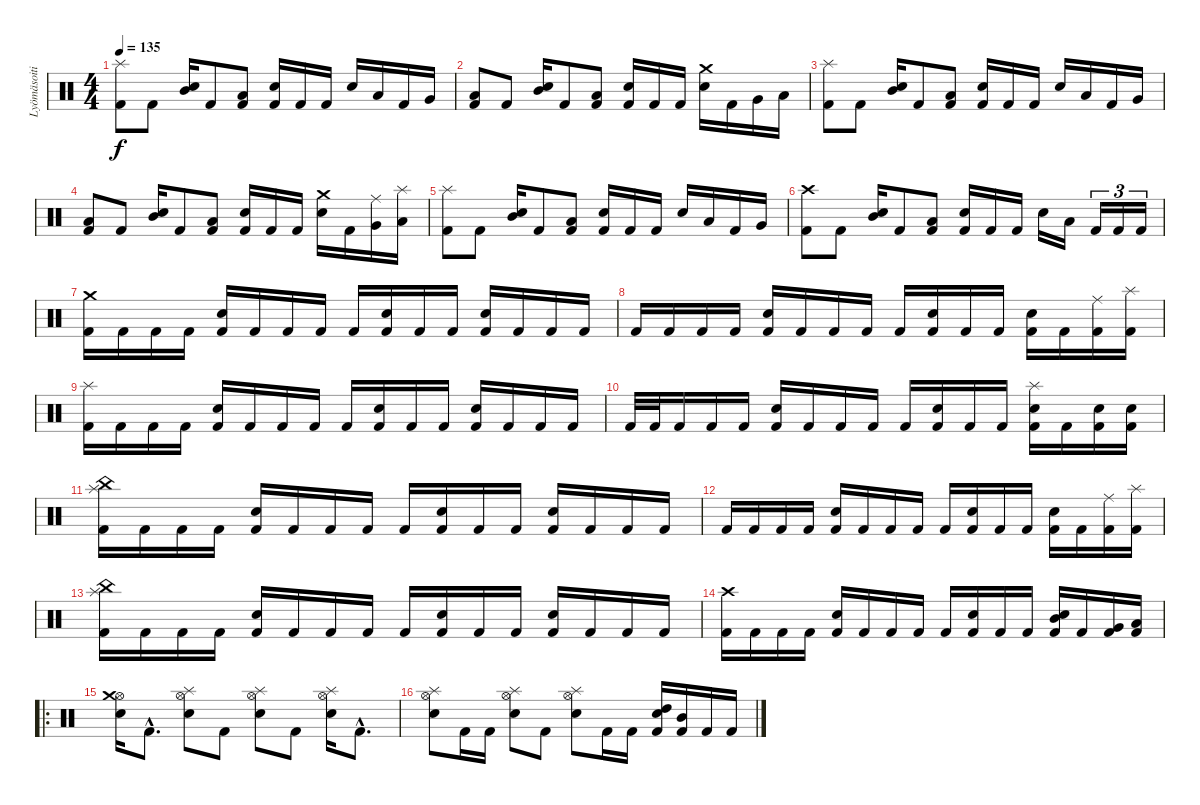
\track ("Lyömäsoitin" "Lyömäsoiti") {instrument percussion}
\staff {score}
\articulation defaults
\ts (4 4)
\tempo 135
\clef neutral
\ks c
("Splash (hit)" "Kick (hit) 2").8{dy f} "Kick (hit) 2".8 ("Mid Tom (hit)" "Electric Snare (hit)").16 "Kick (hit) 2".8 ("Low Tom (hit)" "Kick (hit) 2").8 ("Electric Snare (hit)" "Kick (hit) 2").16 "Kick (hit) 2".16 "Kick (hit) 2".16 "Electric Snare (hit)".16 "Low Tom (hit)".16 "Kick (hit) 2".16 "Very Low Tom (hit)".16 |
("Low Floor Tom (hit)" "Kick (hit) 2").8 "Kick (hit) 2".8 ("Mid Tom (hit)" "Electric Snare (hit)").16 "Kick (hit) 2".8 ("Low Tom (hit)" "Kick (hit) 2").8 ("Electric Snare (hit)" "Kick (hit) 2").16 "Kick (hit) 2".16 "Kick (hit) 2".16 ("Crash medium (hit)" "Electric Snare (hit)").16 "Kick (hit) 2".16 "Very Low Tom (hit)".16 "Low Floor Tom (hit)".16 |
("Splash (hit)" "Kick (hit) 2").8 "Kick (hit) 2".8 ("Mid Tom (hit)" "Electric Snare (hit)").16 "Kick (hit) 2".8 ("Low Tom (hit)" "Kick (hit) 2").8 ("Electric Snare (hit)" "Kick (hit) 2").16 "Kick (hit) 2".16 "Kick (hit) 2".16 "Electric Snare (hit)".16 "Low Tom (hit)".16 "Kick (hit) 2".16 "Very Low Tom (hit)".16 |
("Low Floor Tom (hit)" "Kick (hit) 2").8 "Kick (hit) 2".8 ("Mid Tom (hit)" "Electric Snare (hit)").16 "Kick (hit) 2".8 ("Low Tom (hit)" "Kick (hit) 2").8 ("Electric Snare (hit)" "Kick (hit) 2").16 "Kick (hit) 2".16 "Kick (hit) 2".16 ("Crash medium (hit)" "Electric Snare (hit)").16 "Kick (hit) 2".16 ("Ride (middle)" "Very Low Tom (hit)").16 ("Splash (hit)" "Low Floor Tom (hit)").16 |
("Splash (hit)" "Kick (hit) 2").8 "Kick (hit) 2".8 ("Mid Tom (hit)" "Electric Snare (hit)").16 "Kick (hit) 2".8 ("Low Tom (hit)" "Kick (hit) 2").8 ("Electric Snare (hit)" "Kick (hit) 2").16 "Kick (hit) 2".16 "Kick (hit) 2".16 "Electric Snare (hit)".16 "Low Tom (hit)".16 "Kick (hit) 2".16 "Very Low Tom (hit)".16 |
("Crash high (hit)" "Kick (hit) 2").8 "Kick (hit) 2".8 ("Mid Tom (hit)" "Electric Snare (hit)").16 "Kick (hit) 2".8 ("Low Tom (hit)" "Kick (hit) 2").8 ("Electric Snare (hit)" "Kick (hit) 2").16 "Kick (hit) 2".16 "Kick (hit) 2".16 "Electric Snare (hit)".16 "Low Tom (hit)".16 "Kick (hit) 2".16{tu (3 2)} "Kick (hit) 2".16{tu (3 2)} "Kick (hit) 2".16{tu (3 2)} |
("Crash medium (hit)" "Kick (hit) 2").16 "Kick (hit) 2".16 "Kick (hit) 2".16 "Kick (hit) 2".16 ("Electric Snare (hit)" "Kick (hit) 2").16 "Kick (hit) 2".16 "Kick (hit) 2".16 "Kick (hit) 2".16 "Kick (hit) 2".16 ("Electric Snare (hit)" "Kick (hit) 2").16 "Kick (hit) 2".16 "Kick (hit) 2".16 ("Electric Snare (hit)" "Kick (hit) 2").16 "Kick (hit) 2".16 "Kick (hit) 2".16 "Kick (hit) 2".16 |
"Kick (hit) 2".16 "Kick (hit) 2".16 "Kick (hit) 2".16 "Kick (hit) 2".16 ("Electric Snare (hit)" "Kick (hit) 2").16 "Kick (hit) 2".16 "Kick (hit) 2".16 "Kick (hit) 2".16 "Kick (hit) 2".16 ("Electric Snare (hit)" "Kick (hit) 2").16 "Kick (hit) 2".16 "Kick (hit) 2".16 ("Electric Snare (hit)" "Kick (hit) 2").16 "Kick (hit) 2".16 ("Ride (middle)" "Kick (hit) 2").16 ("Splash (hit)" "Kick (hit) 2").16 |
("Splash (hit)" "Kick (hit) 2").16 "Kick (hit) 2".16 "Kick (hit) 2".16 "Kick (hit) 2".16 ("Electric Snare (hit)" "Kick (hit) 2").16 "Kick (hit) 2".16 "Kick (hit) 2".16 "Kick (hit) 2".16 "Kick (hit) 2".16 ("Electric Snare (hit)" "Kick (hit) 2").16 "Kick (hit) 2".16 "Kick (hit) 2".16 ("Electric Snare (hit)" "Kick (hit) 2").16 "Kick (hit) 2".16 "Kick (hit) 2".16 "Kick (hit) 2".16 |
"Kick (hit) 2".32 "Kick (hit) 2".32 "Kick (hit) 2".16 "Kick (hit) 2".16 "Kick (hit) 2".16 ("Electric Snare (hit)" "Kick (hit) 2").16 "Kick (hit) 2".16 "Kick (hit) 2".16 "Kick (hit) 2".16 "Kick (hit) 2".16 ("Electric Snare (hit)" "Kick (hit) 2").16 "Kick (hit) 2".16 "Kick (hit) 2".16 ("Splash (hit)" "Electric Snare (hit)" "Kick (hit) 2").16 "Kick (hit) 2".16 ("Electric Snare (hit)" "Kick (hit) 2").16 ("Electric Snare (hit)" "Kick (hit) 2").16 |
("Splash (hit)" "China (hit)" "Kick (hit) 2").16 "Kick (hit) 2".16 "Kick (hit) 2".16 "Kick (hit) 2".16 ("Electric Snare (hit)" "Kick (hit) 2").16 "Kick (hit) 2".16 "Kick (hit) 2".16 "Kick (hit) 2".16 "Kick (hit) 2".16 ("Electric Snare (hit)" "Kick (hit) 2").16 "Kick (hit) 2".16 "Kick (hit) 2".16 ("Electric Snare (hit)" "Kick (hit) 2").16 "Kick (hit) 2".16 "Kick (hit) 2".16 "Kick (hit) 2".16 |
"Kick (hit) 2".16 "Kick (hit) 2".16 "Kick (hit) 2".16 "Kick (hit) 2".16 ("Electric Snare (hit)" "Kick (hit) 2").16 "Kick (hit) 2".16 "Kick (hit) 2".16 "Kick (hit) 2".16 "Kick (hit) 2".16 ("Electric Snare (hit)" "Kick (hit) 2").16 "Kick (hit) 2".16 "Kick (hit) 2".16 ("Electric Snare (hit)" "Kick (hit) 2").16 "Kick (hit) 2".16 ("Ride (middle)" "Kick (hit) 2").16 ("Splash (hit)" "Kick (hit) 2").16 |
("Splash (hit)" "China (hit)" "Kick (hit) 2").16 "Kick (hit) 2".16 "Kick (hit) 2".16 "Kick (hit) 2".16 ("Electric Snare (hit)" "Kick (hit) 2").16 "Kick (hit) 2".16 "Kick (hit) 2".16 "Kick (hit) 2".16 "Kick (hit) 2".16 ("Electric Snare (hit)" "Kick (hit) 2").16 "Kick (hit) 2".16 "Kick (hit) 2".16 ("Electric Snare (hit)" "Kick (hit) 2").16 "Kick (hit) 2".16 "Kick (hit) 2".16 "Kick (hit) 2".16 |
("Crash high (hit)" "Kick (hit) 2").16 "Kick (hit) 2".16 "Kick (hit) 2".16 "Kick (hit) 2".16 ("Electric Snare (hit)" "Kick (hit) 2").16 "Kick (hit) 2".16 "Kick (hit) 2".16 "Kick (hit) 2".16 "Kick (hit) 2".16 ("Electric Snare (hit)" "Kick (hit) 2").16 "Kick (hit) 2".16 "Kick (hit) 2".16 ("Mid Tom (hit)" "Electric Snare (hit)" "Kick (hit) 2").16 "Kick (hit) 2".16 ("Very Low Tom (hit)" "Kick (hit) 2").16 ("Low Floor Tom (hit)" "Kick (hit) 2").16 |
\ro
("Hi-Hat (open)" "Crash medium (hit)" "Electric Snare (hit)").16 "Kick (hit) 2"{hac}.8{d} ("Hi-Hat (open)" "Splash (hit)" "Electric Snare (hit)").8 "Kick (hit) 2".8 ("Hi-Hat (open)" "Splash (hit)" "Electric Snare (hit)").8 "Kick (hit) 2".8 ("Hi-Hat (open)" "Splash (hit)" "Electric Snare (hit)").16 "Kick (hit) 2"{hac}.8{d} |
("Splash (hit)" "Hi-Hat (open)" "Electric Snare (hit)").8 "Kick (hit) 2".16 "Kick (hit) 2".16 ("Splash (hit)" "Hi-Hat (open)" "Electric Snare (hit)").8 "Kick (hit) 2".8 ("Splash (hit)" "Hi-Hat (open)" "Electric Snare (hit)").8 "Kick (hit) 2".16 "Kick (hit) 2".16 ("High Tom (hit)" "Electric Snare (hit)" "Kick (hit) 2").16 ("Mid Tom (hit)" "Kick (hit) 2").16 "Kick (hit) 2".16 "Kick (hit) 2".16
